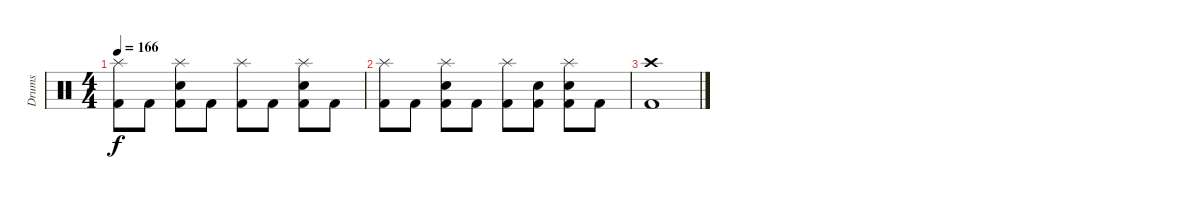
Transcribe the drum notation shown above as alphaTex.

\track ("Drums" "Drums") {instrument percussion}
\staff {score}
\articulation defaults
\ts (4 4)
\tempo 166
\clef neutral
\ks c
("Splash (hit)" "Kick (hit) 2").8{dy f} "Kick (hit) 2".8 ("Splash (hit)" "Kick (hit) 2" "Electric Snare (hit)").8 "Kick (hit) 2".8 ("Splash (hit)" "Kick (hit) 2").8 "Kick (hit) 2".8 ("Splash (hit)" "Kick (hit) 2" "Electric Snare (hit)").8 "Kick (hit) 2".8 |
("Splash (hit)" "Kick (hit) 2").8 "Kick (hit) 2".8 ("Splash (hit)" "Kick (hit) 2" "Electric Snare (hit)").8 "Kick (hit) 2".8 ("Splash (hit)" "Kick (hit) 2").8 ("Electric Snare (hit)" "Kick (hit) 2").8 ("Splash (hit)" "Kick (hit) 2" "Electric Snare (hit)").8 "Kick (hit) 2".8 |
("Kick (hit) 2" "Crash high (hit)").1
